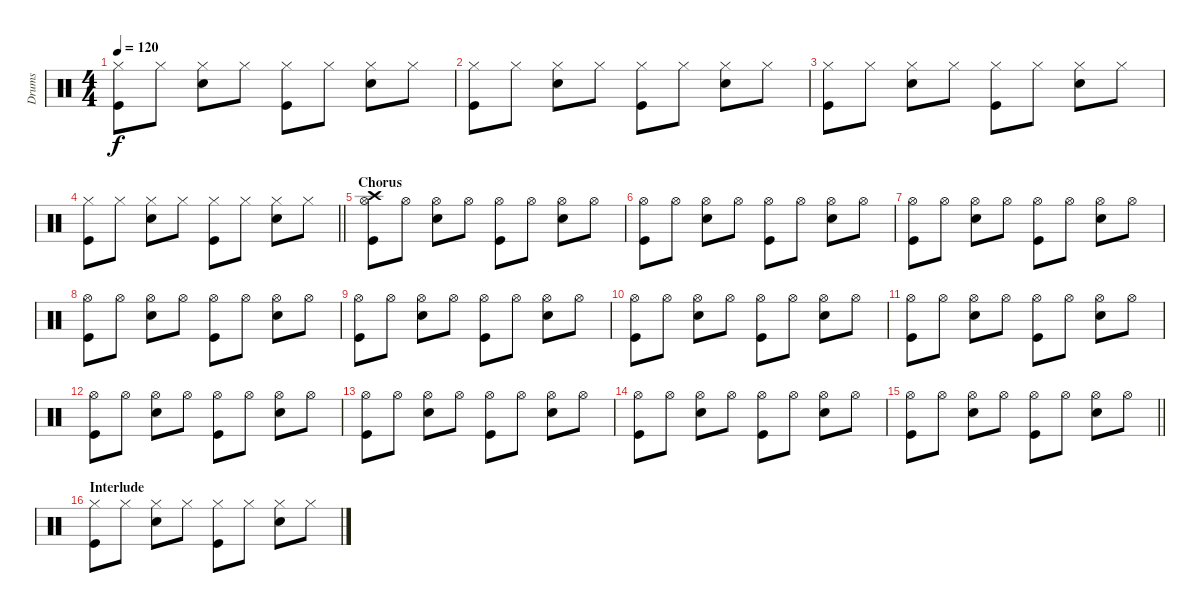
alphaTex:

\track ("Drums" "Drums") {instrument percussion}
\staff {score}
\articulation defaults
\ts (4 4)
\tempo 120
\clef neutral
\ks c
("Hi-Hat (closed)" "Kick (hit)").8{dy f} "Hi-Hat (closed)".8 ("Hi-Hat (closed)" "Snare (hit) 2").8 "Hi-Hat (closed)".8 ("Hi-Hat (closed)" "Kick (hit)").8 "Hi-Hat (closed)".8 ("Hi-Hat (closed)" "Snare (hit) 2").8 "Hi-Hat (closed)".8 |
("Hi-Hat (closed)" "Kick (hit)").8 "Hi-Hat (closed)".8 ("Hi-Hat (closed)" "Snare (hit) 2").8 "Hi-Hat (closed)".8 ("Hi-Hat (closed)" "Kick (hit)").8 "Hi-Hat (closed)".8 ("Hi-Hat (closed)" "Snare (hit) 2").8 "Hi-Hat (closed)".8 |
("Hi-Hat (closed)" "Kick (hit)").8 "Hi-Hat (closed)".8 ("Hi-Hat (closed)" "Snare (hit) 2").8 "Hi-Hat (closed)".8 ("Hi-Hat (closed)" "Kick (hit)").8 "Hi-Hat (closed)".8 ("Hi-Hat (closed)" "Snare (hit) 2").8 "Hi-Hat (closed)".8 |
\barLineRight lightlight
("Hi-Hat (closed)" "Kick (hit)").8 "Hi-Hat (closed)".8 ("Hi-Hat (closed)" "Snare (hit) 2").8 "Hi-Hat (closed)".8 ("Hi-Hat (closed)" "Kick (hit)").8 "Hi-Hat (closed)".8 ("Hi-Hat (closed)" "Snare (hit) 2").8 "Hi-Hat (closed)".8 |
\section ("" "Chorus")
("Crash high (hit)" "Hi-Hat (open)" "Kick (hit)").8 "Hi-Hat (open)".8 ("Hi-Hat (open)" "Snare (hit) 2").8 "Hi-Hat (open)".8 ("Hi-Hat (open)" "Kick (hit)").8 "Hi-Hat (open)".8 ("Hi-Hat (open)" "Snare (hit) 2").8 "Hi-Hat (open)".8 |
("Hi-Hat (open)" "Kick (hit)").8 "Hi-Hat (open)".8 ("Hi-Hat (open)" "Snare (hit) 2").8 "Hi-Hat (open)".8 ("Hi-Hat (open)" "Kick (hit)").8 "Hi-Hat (open)".8 ("Hi-Hat (open)" "Snare (hit) 2").8 "Hi-Hat (open)".8 |
("Hi-Hat (open)" "Kick (hit)").8 "Hi-Hat (open)".8 ("Hi-Hat (open)" "Snare (hit) 2").8 "Hi-Hat (open)".8 ("Hi-Hat (open)" "Kick (hit)").8 "Hi-Hat (open)".8 ("Hi-Hat (open)" "Snare (hit) 2").8 "Hi-Hat (open)".8 |
("Hi-Hat (open)" "Kick (hit)").8 "Hi-Hat (open)".8 ("Hi-Hat (open)" "Snare (hit) 2").8 "Hi-Hat (open)".8 ("Hi-Hat (open)" "Kick (hit)").8 "Hi-Hat (open)".8 ("Hi-Hat (open)" "Snare (hit) 2").8 "Hi-Hat (open)".8 |
("Hi-Hat (open)" "Kick (hit)").8 "Hi-Hat (open)".8 ("Hi-Hat (open)" "Snare (hit) 2").8 "Hi-Hat (open)".8 ("Hi-Hat (open)" "Kick (hit)").8 "Hi-Hat (open)".8 ("Hi-Hat (open)" "Snare (hit) 2").8 "Hi-Hat (open)".8 |
("Hi-Hat (open)" "Kick (hit)").8 "Hi-Hat (open)".8 ("Hi-Hat (open)" "Snare (hit) 2").8 "Hi-Hat (open)".8 ("Hi-Hat (open)" "Kick (hit)").8 "Hi-Hat (open)".8 ("Hi-Hat (open)" "Snare (hit) 2").8 "Hi-Hat (open)".8 |
("Hi-Hat (open)" "Kick (hit)").8 "Hi-Hat (open)".8 ("Hi-Hat (open)" "Snare (hit) 2").8 "Hi-Hat (open)".8 ("Hi-Hat (open)" "Kick (hit)").8 "Hi-Hat (open)".8 ("Hi-Hat (open)" "Snare (hit) 2").8 "Hi-Hat (open)".8 |
("Hi-Hat (open)" "Kick (hit)").8 "Hi-Hat (open)".8 ("Hi-Hat (open)" "Snare (hit) 2").8 "Hi-Hat (open)".8 ("Hi-Hat (open)" "Kick (hit)").8 "Hi-Hat (open)".8 ("Hi-Hat (open)" "Snare (hit) 2").8 "Hi-Hat (open)".8 |
("Hi-Hat (open)" "Kick (hit)").8 "Hi-Hat (open)".8 ("Hi-Hat (open)" "Snare (hit) 2").8 "Hi-Hat (open)".8 ("Hi-Hat (open)" "Kick (hit)").8 "Hi-Hat (open)".8 ("Hi-Hat (open)" "Snare (hit) 2").8 "Hi-Hat (open)".8 |
("Hi-Hat (open)" "Kick (hit)").8 "Hi-Hat (open)".8 ("Hi-Hat (open)" "Snare (hit) 2").8 "Hi-Hat (open)".8 ("Hi-Hat (open)" "Kick (hit)").8 "Hi-Hat (open)".8 ("Hi-Hat (open)" "Snare (hit) 2").8 "Hi-Hat (open)".8 |
\barLineRight lightlight
("Hi-Hat (open)" "Kick (hit)").8 "Hi-Hat (open)".8 ("Hi-Hat (open)" "Snare (hit) 2").8 "Hi-Hat (open)".8 ("Hi-Hat (open)" "Kick (hit)").8 "Hi-Hat (open)".8 ("Hi-Hat (open)" "Snare (hit) 2").8 "Hi-Hat (open)".8 |
\section ("" "Interlude")
("Hi-Hat (closed)" "Kick (hit)").8 "Hi-Hat (closed)".8 ("Hi-Hat (closed)" "Snare (hit) 2").8 "Hi-Hat (closed)".8 ("Hi-Hat (closed)" "Kick (hit)").8 "Hi-Hat (closed)".8 ("Hi-Hat (closed)" "Snare (hit) 2").8 "Hi-Hat (closed)".8
